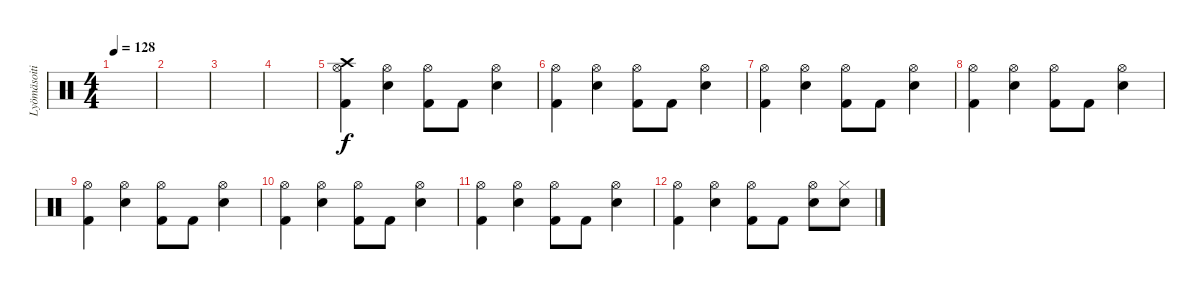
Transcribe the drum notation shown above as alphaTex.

\track ("Lyömäsoitin" "Lyömäsoiti") {instrument percussion}
\staff {score}
\articulation defaults
\ts (4 4)
\tempo 128
\clef neutral
\ks c
|
|
|
|
("Crash high (hit)" "Hi-Hat (open)" "Kick (hit) 2").4 ("Hi-Hat (open)" "Electric Snare (hit)").4 ("Hi-Hat (open)" "Kick (hit) 2").8 "Kick (hit) 2".8 ("Hi-Hat (open)" "Electric Snare (hit)").4 |
("Hi-Hat (open)" "Kick (hit) 2").4 ("Hi-Hat (open)" "Electric Snare (hit)").4 ("Hi-Hat (open)" "Kick (hit) 2").8 "Kick (hit) 2".8 ("Hi-Hat (open)" "Electric Snare (hit)").4 |
("Hi-Hat (open)" "Kick (hit) 2").4 ("Hi-Hat (open)" "Electric Snare (hit)").4 ("Hi-Hat (open)" "Kick (hit) 2").8 "Kick (hit) 2".8 ("Hi-Hat (open)" "Electric Snare (hit)").4 |
("Hi-Hat (open)" "Kick (hit) 2").4 ("Hi-Hat (open)" "Electric Snare (hit)").4 ("Hi-Hat (open)" "Kick (hit) 2").8 "Kick (hit) 2".8 ("Hi-Hat (open)" "Electric Snare (hit)").4 |
("Hi-Hat (open)" "Kick (hit) 2").4 ("Hi-Hat (open)" "Electric Snare (hit)").4 ("Hi-Hat (open)" "Kick (hit) 2").8 "Kick (hit) 2".8 ("Hi-Hat (open)" "Electric Snare (hit)").4 |
("Hi-Hat (open)" "Kick (hit) 2").4 ("Hi-Hat (open)" "Electric Snare (hit)").4 ("Hi-Hat (open)" "Kick (hit) 2").8 "Kick (hit) 2".8 ("Hi-Hat (open)" "Electric Snare (hit)").4 |
("Hi-Hat (open)" "Kick (hit) 2").4 ("Hi-Hat (open)" "Electric Snare (hit)").4 ("Hi-Hat (open)" "Kick (hit) 2").8 "Kick (hit) 2".8 ("Hi-Hat (open)" "Electric Snare (hit)").4 |
("Hi-Hat (open)" "Kick (hit) 2").4 ("Hi-Hat (open)" "Electric Snare (hit)").4 ("Hi-Hat (open)" "Kick (hit) 2").8 "Kick (hit) 2".8 ("Hi-Hat (open)" "Electric Snare (hit)").8 ("Hi-Hat (closed)" "Electric Snare (hit)").8
